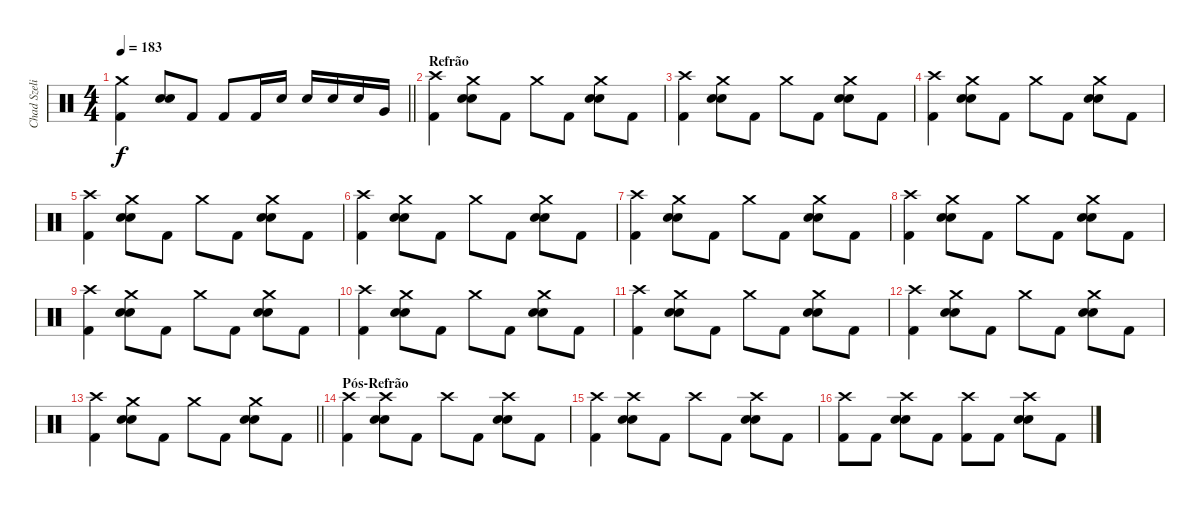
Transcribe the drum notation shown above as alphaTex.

\track ("Chad Szeliga" "Chad Szeli") {instrument percussion}
\staff {score}
\articulation defaults
\ts (4 4)
\tempo 183
\clef neutral
\barLineRight lightlight
\ks c
("Crash medium (hit)" "Kick (hit) 2").4{dy f} ("Snare (hit) 2" "Snare (hit) 2").8 "Kick (hit) 2".8 "Kick (hit) 2".8 "Kick (hit) 2".16 "Snare (hit) 2".16 "Snare (hit) 2".16 "Snare (hit) 2".16 "Snare (hit) 2".16 "Very Low Tom (hit)".16 |
\section ("" "Refrão")
("Crash high (hit)" "Kick (hit) 2").4 ("Crash medium (hit)" "Snare (hit) 2" "Snare (hit) 2").8 "Kick (hit) 2".8 "Crash medium (hit)".8 "Kick (hit) 2".8 ("Crash medium (hit)" "Snare (hit) 2" "Snare (hit) 2").8 "Kick (hit) 2".8 |
("Crash high (hit)" "Kick (hit) 2").4 ("Crash medium (hit)" "Snare (hit) 2" "Snare (hit) 2").8 "Kick (hit) 2".8 "Crash medium (hit)".8 "Kick (hit) 2".8 ("Crash medium (hit)" "Snare (hit) 2" "Snare (hit) 2").8 "Kick (hit) 2".8 |
("Crash high (hit)" "Kick (hit) 2").4 ("Crash medium (hit)" "Snare (hit) 2" "Snare (hit) 2").8 "Kick (hit) 2".8 "Crash medium (hit)".8 "Kick (hit) 2".8 ("Crash medium (hit)" "Snare (hit) 2" "Snare (hit) 2").8 "Kick (hit) 2".8 |
("Crash high (hit)" "Kick (hit) 2").4 ("Crash medium (hit)" "Snare (hit) 2" "Snare (hit) 2").8 "Kick (hit) 2".8 "Crash medium (hit)".8 "Kick (hit) 2".8 ("Crash medium (hit)" "Snare (hit) 2" "Snare (hit) 2").8 "Kick (hit) 2".8 |
("Crash high (hit)" "Kick (hit) 2").4 ("Crash medium (hit)" "Snare (hit) 2" "Snare (hit) 2").8 "Kick (hit) 2".8 "Crash medium (hit)".8 "Kick (hit) 2".8 ("Crash medium (hit)" "Snare (hit) 2" "Snare (hit) 2").8 "Kick (hit) 2".8 |
("Crash high (hit)" "Kick (hit) 2").4 ("Crash medium (hit)" "Snare (hit) 2" "Snare (hit) 2").8 "Kick (hit) 2".8 "Crash medium (hit)".8 "Kick (hit) 2".8 ("Crash medium (hit)" "Snare (hit) 2" "Snare (hit) 2").8 "Kick (hit) 2".8 |
("Crash high (hit)" "Kick (hit) 2").4 ("Crash medium (hit)" "Snare (hit) 2" "Snare (hit) 2").8 "Kick (hit) 2".8 "Crash medium (hit)".8 "Kick (hit) 2".8 ("Crash medium (hit)" "Snare (hit) 2" "Snare (hit) 2").8 "Kick (hit) 2".8 |
("Crash high (hit)" "Kick (hit) 2").4 ("Crash medium (hit)" "Snare (hit) 2" "Snare (hit) 2").8 "Kick (hit) 2".8 "Crash medium (hit)".8 "Kick (hit) 2".8 ("Crash medium (hit)" "Snare (hit) 2" "Snare (hit) 2").8 "Kick (hit) 2".8 |
("Crash high (hit)" "Kick (hit) 2").4 ("Crash medium (hit)" "Snare (hit) 2" "Snare (hit) 2").8 "Kick (hit) 2".8 "Crash medium (hit)".8 "Kick (hit) 2".8 ("Crash medium (hit)" "Snare (hit) 2" "Snare (hit) 2").8 "Kick (hit) 2".8 |
("Crash high (hit)" "Kick (hit) 2").4 ("Crash medium (hit)" "Snare (hit) 2" "Snare (hit) 2").8 "Kick (hit) 2".8 "Crash medium (hit)".8 "Kick (hit) 2".8 ("Crash medium (hit)" "Snare (hit) 2" "Snare (hit) 2").8 "Kick (hit) 2".8 |
("Crash high (hit)" "Kick (hit) 2").4 ("Crash medium (hit)" "Snare (hit) 2" "Snare (hit) 2").8 "Kick (hit) 2".8 "Crash medium (hit)".8 "Kick (hit) 2".8 ("Crash medium (hit)" "Snare (hit) 2" "Snare (hit) 2").8 "Kick (hit) 2".8 |
\barLineRight lightlight
("Crash high (hit)" "Kick (hit) 2").4 ("Crash medium (hit)" "Snare (hit) 2" "Snare (hit) 2").8 "Kick (hit) 2".8 "Crash medium (hit)".8 "Kick (hit) 2".8 ("Crash medium (hit)" "Snare (hit) 2" "Snare (hit) 2").8 "Kick (hit) 2".8 |
\section ("" "Pós-Refrão")
("Crash high (hit)" "Kick (hit) 2").4 ("Crash high (hit)" "Snare (hit) 2" "Snare (hit) 2").8 "Kick (hit) 2".8 "Crash high (hit)".8 "Kick (hit) 2".8 ("Crash high (hit)" "Snare (hit) 2" "Snare (hit) 2").8 "Kick (hit) 2".8 |
("Crash high (hit)" "Kick (hit) 2").4 ("Crash high (hit)" "Snare (hit) 2" "Snare (hit) 2").8 "Kick (hit) 2".8 "Crash high (hit)".8 "Kick (hit) 2".8 ("Crash high (hit)" "Snare (hit) 2" "Snare (hit) 2").8 "Kick (hit) 2".8 |
("Crash high (hit)" "Kick (hit) 2").8 "Kick (hit) 2".8 ("Crash high (hit)" "Snare (hit) 2" "Snare (hit) 2").8 "Kick (hit) 2".8 ("Crash high (hit)" "Kick (hit) 2").8 "Kick (hit) 2".8 ("Crash high (hit)" "Snare (hit) 2" "Snare (hit) 2").8 "Kick (hit) 2".8
